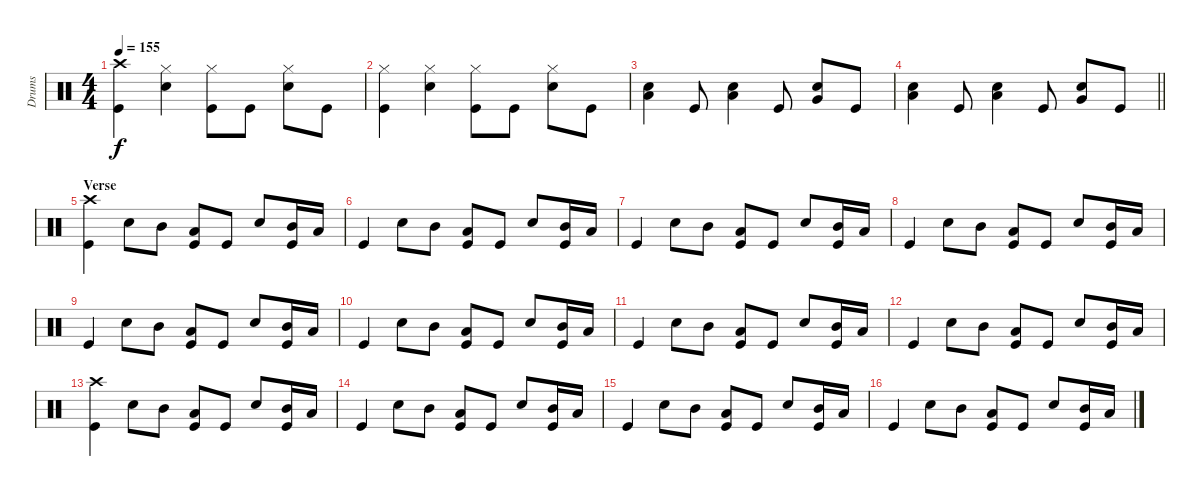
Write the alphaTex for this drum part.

\track ("Drums" "Drums") {instrument percussion}
\staff {score}
\articulation defaults
\ts (4 4)
\tempo 155
\clef neutral
\ks c
("Crash high (hit)" "Kick (hit)").4{dy f} ("Hi-Hat (closed)" "Snare (hit) 2").4 ("Hi-Hat (closed)" "Kick (hit)").8 "Kick (hit)".8 ("Hi-Hat (closed)" "Snare (hit) 2").8 "Kick (hit)".8 |
("Hi-Hat (closed)" "Kick (hit)").4 ("Hi-Hat (closed)" "Snare (hit) 2").4 ("Hi-Hat (closed)" "Kick (hit)").8 "Kick (hit)".8 ("Hi-Hat (closed)" "Snare (hit) 2").8 "Kick (hit)".8 |
("Low Tom (hit)" "Snare (hit) 2").4 "Kick (hit)".8 ("Low Tom (hit)" "Snare (hit) 2").4 "Kick (hit)".8 ("Very Low Tom (hit)" "Snare (hit) 2").8 "Kick (hit)".8 |
\barLineRight lightlight
("Low Tom (hit)" "Snare (hit) 2").4 "Kick (hit)".8 ("Low Tom (hit)" "Snare (hit) 2").4 "Kick (hit)".8 ("Very Low Tom (hit)" "Snare (hit) 2").8 "Kick (hit)".8 |
\section ("" "Verse")
("Crash high (hit)" "Kick (hit)").4 "Snare (hit) 2".8 "Mid Tom (hit)".8 ("Low Tom (hit)" "Kick (hit)").8 "Kick (hit)".8 "Snare (hit) 2".8 ("Mid Tom (hit)" "Kick (hit)").16 "Low Tom (hit)".16 |
"Kick (hit)".4 "Snare (hit) 2".8 "Mid Tom (hit)".8 ("Low Tom (hit)" "Kick (hit)").8 "Kick (hit)".8 "Snare (hit) 2".8 ("Mid Tom (hit)" "Kick (hit)").16 "Low Tom (hit)".16 |
"Kick (hit)".4 "Snare (hit) 2".8 "Mid Tom (hit)".8 ("Low Tom (hit)" "Kick (hit)").8 "Kick (hit)".8 "Snare (hit) 2".8 ("Mid Tom (hit)" "Kick (hit)").16 "Low Tom (hit)".16 |
"Kick (hit)".4 "Snare (hit) 2".8 "Mid Tom (hit)".8 ("Low Tom (hit)" "Kick (hit)").8 "Kick (hit)".8 "Snare (hit) 2".8 ("Mid Tom (hit)" "Kick (hit)").16 "Low Tom (hit)".16 |
"Kick (hit)".4 "Snare (hit) 2".8 "Mid Tom (hit)".8 ("Low Tom (hit)" "Kick (hit)").8 "Kick (hit)".8 "Snare (hit) 2".8 ("Mid Tom (hit)" "Kick (hit)").16 "Low Tom (hit)".16 |
"Kick (hit)".4 "Snare (hit) 2".8 "Mid Tom (hit)".8 ("Low Tom (hit)" "Kick (hit)").8 "Kick (hit)".8 "Snare (hit) 2".8 ("Mid Tom (hit)" "Kick (hit)").16 "Low Tom (hit)".16 |
"Kick (hit)".4 "Snare (hit) 2".8 "Mid Tom (hit)".8 ("Low Tom (hit)" "Kick (hit)").8 "Kick (hit)".8 "Snare (hit) 2".8 ("Mid Tom (hit)" "Kick (hit)").16 "Low Tom (hit)".16 |
"Kick (hit)".4 "Snare (hit) 2".8 "Mid Tom (hit)".8 ("Low Tom (hit)" "Kick (hit)").8 "Kick (hit)".8 "Snare (hit) 2".8 ("Mid Tom (hit)" "Kick (hit)").16 "Low Tom (hit)".16 |
("Crash high (hit)" "Kick (hit)").4 "Snare (hit) 2".8 "Mid Tom (hit)".8 ("Low Tom (hit)" "Kick (hit)").8 "Kick (hit)".8 "Snare (hit) 2".8 ("Mid Tom (hit)" "Kick (hit)").16 "Low Tom (hit)".16 |
"Kick (hit)".4 "Snare (hit) 2".8 "Mid Tom (hit)".8 ("Low Tom (hit)" "Kick (hit)").8 "Kick (hit)".8 "Snare (hit) 2".8 ("Mid Tom (hit)" "Kick (hit)").16 "Low Tom (hit)".16 |
"Kick (hit)".4 "Snare (hit) 2".8 "Mid Tom (hit)".8 ("Low Tom (hit)" "Kick (hit)").8 "Kick (hit)".8 "Snare (hit) 2".8 ("Mid Tom (hit)" "Kick (hit)").16 "Low Tom (hit)".16 |
"Kick (hit)".4 "Snare (hit) 2".8 "Mid Tom (hit)".8 ("Low Tom (hit)" "Kick (hit)").8 "Kick (hit)".8 "Snare (hit) 2".8 ("Mid Tom (hit)" "Kick (hit)").16 "Low Tom (hit)".16
